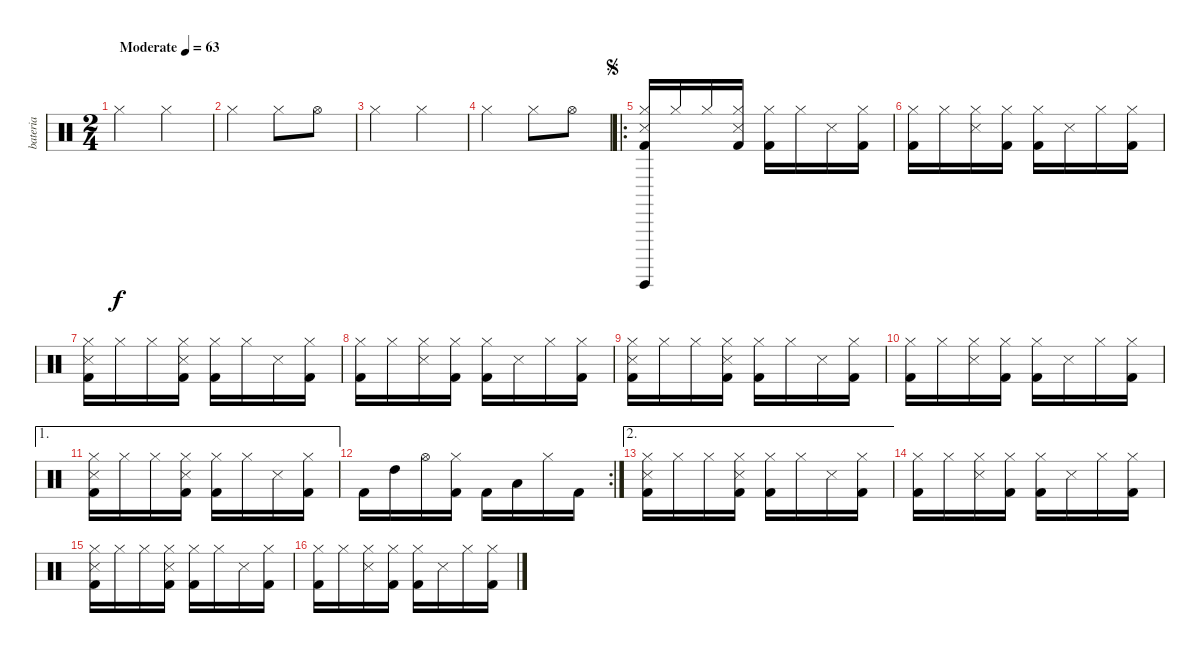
\track ("bateria" "bateria") {instrument percussion}
\staff {score}
\articulation defaults
\ts (2 4)
\tempo (63 "Moderate")
\clef neutral
\ks c "Hi-Hat (closed)".4{dy f} "Hi-Hat (closed)".4
|
"Hi-Hat (closed)".4 "Hi-Hat (closed)".8 "Hi-Hat (open)".8 |
"Hi-Hat (closed)".4 "Hi-Hat (closed)".4 |
"Hi-Hat (closed)".4 "Hi-Hat (closed)".8 "Hi-Hat (open)".8 |
\ro
\jump segno
("Hi-Hat (closed)" "Snare (side stick) 3" "Kick (hit) 2" "Guiro (hit)").16 "Hi-Hat (closed)".16 "Hi-Hat (closed)".16 ("Hi-Hat (closed)" "Snare (side stick) 3" "Kick (hit) 2").16 ("Hi-Hat (closed)" "Kick (hit) 2").16 "Hi-Hat (closed)".16 "Snare (side stick) 3".16 ("Hi-Hat (closed)" "Kick (hit) 2").16 |
("Hi-Hat (closed)" "Kick (hit) 2").16 "Hi-Hat (closed)".16 ("Hi-Hat (closed)" "Snare (side stick) 3").16 ("Hi-Hat (closed)" "Kick (hit) 2").16 ("Hi-Hat (closed)" "Kick (hit) 2").16 "Snare (side stick) 3".16 "Hi-Hat (closed)".16 ("Hi-Hat (closed)" "Kick (hit) 2").16 |
("Hi-Hat (closed)" "Snare (side stick) 3" "Kick (hit) 2").16 "Hi-Hat (closed)".16 "Hi-Hat (closed)".16 ("Hi-Hat (closed)" "Snare (side stick) 3" "Kick (hit) 2").16 ("Hi-Hat (closed)" "Kick (hit) 2").16 "Hi-Hat (closed)".16 "Snare (side stick) 3".16 ("Hi-Hat (closed)" "Kick (hit) 2").16 |
("Hi-Hat (closed)" "Kick (hit) 2").16 "Hi-Hat (closed)".16 ("Hi-Hat (closed)" "Snare (side stick) 3").16 ("Hi-Hat (closed)" "Kick (hit) 2").16 ("Hi-Hat (closed)" "Kick (hit) 2").16 "Snare (side stick) 3".16 "Hi-Hat (closed)".16 ("Hi-Hat (closed)" "Kick (hit) 2").16 |
("Hi-Hat (closed)" "Snare (side stick) 3" "Kick (hit) 2").16 "Hi-Hat (closed)".16 "Hi-Hat (closed)".16 ("Hi-Hat (closed)" "Snare (side stick) 3" "Kick (hit) 2").16 ("Hi-Hat (closed)" "Kick (hit) 2").16 "Hi-Hat (closed)".16 "Snare (side stick) 3".16 ("Hi-Hat (closed)" "Kick (hit) 2").16 |
("Hi-Hat (closed)" "Kick (hit) 2").16 "Hi-Hat (closed)".16 ("Hi-Hat (closed)" "Snare (side stick) 3").16 ("Hi-Hat (closed)" "Kick (hit) 2").16 ("Hi-Hat (closed)" "Kick (hit) 2").16 "Snare (side stick) 3".16 "Hi-Hat (closed)".16 ("Hi-Hat (closed)" "Kick (hit) 2").16 |
\ae 1
("Hi-Hat (closed)" "Snare (side stick) 3" "Kick (hit) 2").16 "Hi-Hat (closed)".16 "Hi-Hat (closed)".16 ("Hi-Hat (closed)" "Snare (side stick) 3" "Kick (hit) 2").16 ("Hi-Hat (closed)" "Kick (hit) 2").16 "Hi-Hat (closed)".16 "Snare (side stick) 3".16 ("Hi-Hat (closed)" "Kick (hit) 2").16 |
\rc 2 "Kick (hit) 2".16 "High Tom (hit)".16 "Hi-Hat (open)".16
("Hi-Hat (closed)" "Kick (hit) 2").16 "Kick (hit) 2".16 "Low Tom (hit)".16 "Hi-Hat (closed)".16 "Kick (hit) 2".16 |
\ae 2
("Hi-Hat (closed)" "Snare (side stick) 3" "Kick (hit) 2").16 "Hi-Hat (closed)".16 "Hi-Hat (closed)".16 ("Hi-Hat (closed)" "Snare (side stick) 3" "Kick (hit) 2").16 ("Hi-Hat (closed)" "Kick (hit) 2").16 "Hi-Hat (closed)".16 "Snare (side stick) 3".16 ("Hi-Hat (closed)" "Kick (hit) 2").16 |
("Hi-Hat (closed)" "Kick (hit) 2").16 "Hi-Hat (closed)".16 ("Hi-Hat (closed)" "Snare (side stick) 3").16 ("Hi-Hat (closed)" "Kick (hit) 2").16 ("Hi-Hat (closed)" "Kick (hit) 2").16 "Snare (side stick) 3".16 "Hi-Hat (closed)".16 ("Hi-Hat (closed)" "Kick (hit) 2").16 |
("Hi-Hat (closed)" "Snare (side stick) 3" "Kick (hit) 2").16 "Hi-Hat (closed)".16 "Hi-Hat (closed)".16 ("Hi-Hat (closed)" "Snare (side stick) 3" "Kick (hit) 2").16 ("Hi-Hat (closed)" "Kick (hit) 2").16 "Hi-Hat (closed)".16 "Snare (side stick) 3".16 ("Hi-Hat (closed)" "Kick (hit) 2").16 |
("Hi-Hat (closed)" "Kick (hit) 2").16 "Hi-Hat (closed)".16 ("Hi-Hat (closed)" "Snare (side stick) 3").16 ("Hi-Hat (closed)" "Kick (hit) 2").16 ("Hi-Hat (closed)" "Kick (hit) 2").16 "Snare (side stick) 3".16 "Hi-Hat (closed)".16 ("Hi-Hat (closed)" "Kick (hit) 2").16
